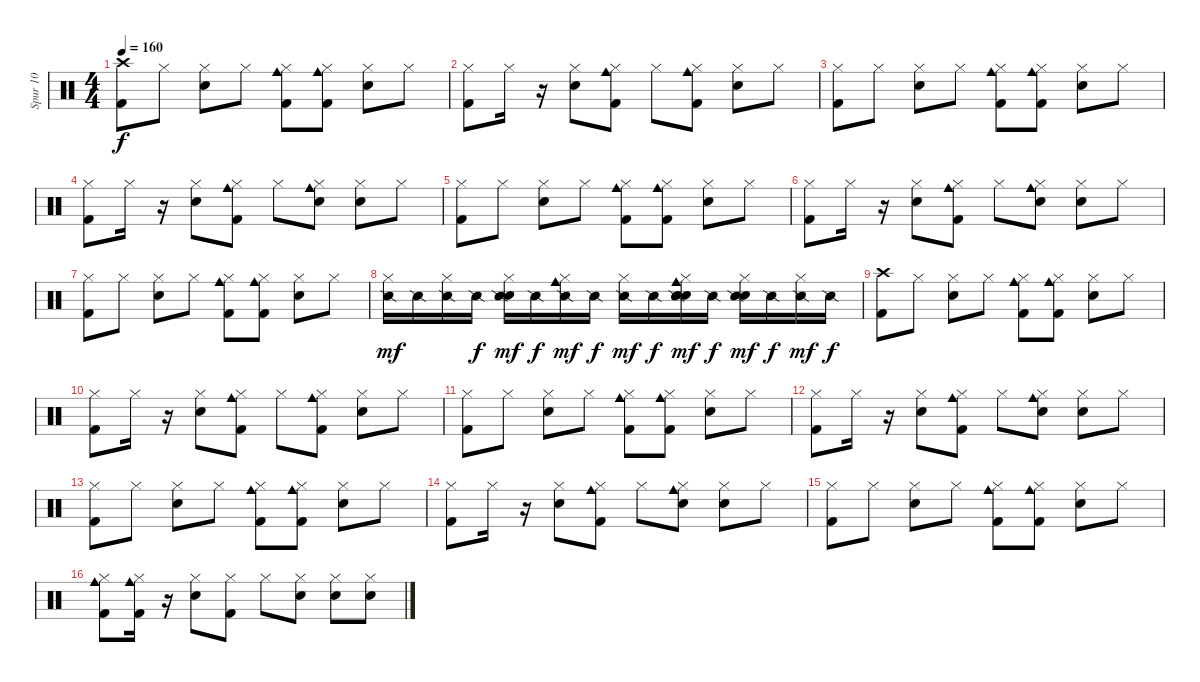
\track ("Spur 10" "Spur 10") {instrument percussion}
\staff {score}
\articulation defaults
\ts (4 4)
\tempo 160
\clef neutral
\ks c
("Crash high (hit)" "Kick (hit) 2").8{dy f} "Hi-Hat (closed)".8 ("Hi-Hat (closed)" "Snare (hit) 2").8 "Hi-Hat (closed)".8 ("Hi-Hat (closed)" "Cowbell medium (hit)" "Kick (hit) 2").8 ("Hi-Hat (closed)" "Cowbell medium (hit)" "Kick (hit) 2").8 ("Hi-Hat (closed)" "Snare (hit) 2").8 "Hi-Hat (closed)".8 |
("Hi-Hat (closed)" "Kick (hit) 2").8 "Hi-Hat (closed)".16 r.16 ("Hi-Hat (closed)" "Snare (hit) 2").8 ("Hi-Hat (closed)" "Kick (hit) 2" "Cowbell medium (hit)").8 "Hi-Hat (closed)".8 ("Hi-Hat (closed)" "Kick (hit) 2" "Cowbell medium (hit)").8 ("Hi-Hat (closed)" "Snare (hit) 2").8 "Hi-Hat (closed)".8 |
("Hi-Hat (closed)" "Kick (hit) 2").8 "Hi-Hat (closed)".8 ("Hi-Hat (closed)" "Snare (hit) 2").8 "Hi-Hat (closed)".8 ("Hi-Hat (closed)" "Cowbell medium (hit)" "Kick (hit) 2").8 ("Hi-Hat (closed)" "Cowbell medium (hit)" "Kick (hit) 2").8 ("Hi-Hat (closed)" "Snare (hit) 2").8 "Hi-Hat (closed)".8 |
("Hi-Hat (closed)" "Kick (hit) 2").8 "Hi-Hat (closed)".16 r.16 ("Hi-Hat (closed)" "Snare (hit) 2").8 ("Hi-Hat (closed)" "Kick (hit) 2" "Cowbell medium (hit)").8 "Hi-Hat (closed)".8 ("Hi-Hat (closed)" "Hand Clap (hit)" "Cowbell medium (hit)").8 ("Hi-Hat (closed)" "Snare (hit) 2").8 "Hi-Hat (closed)".8 |
("Hi-Hat (closed)" "Kick (hit) 2").8 "Hi-Hat (closed)".8 ("Hi-Hat (closed)" "Snare (hit) 2").8 "Hi-Hat (closed)".8 ("Hi-Hat (closed)" "Cowbell medium (hit)" "Kick (hit) 2").8 ("Hi-Hat (closed)" "Cowbell medium (hit)" "Kick (hit) 2").8 ("Hi-Hat (closed)" "Snare (hit) 2").8 "Hi-Hat (closed)".8 |
("Hi-Hat (closed)" "Kick (hit) 2").8 "Hi-Hat (closed)".16 r.16 ("Hi-Hat (closed)" "Snare (hit) 2").8 ("Hi-Hat (closed)" "Kick (hit) 2" "Cowbell medium (hit)").8 "Hi-Hat (closed)".8 ("Hi-Hat (closed)" "Hand Clap (hit)" "Cowbell medium (hit)").8 ("Hi-Hat (closed)" "Snare (hit) 2").8 "Hi-Hat (closed)".8 |
("Hi-Hat (closed)" "Kick (hit) 2").8 "Hi-Hat (closed)".8 ("Hi-Hat (closed)" "Snare (hit) 2").8 "Hi-Hat (closed)".8 ("Hi-Hat (closed)" "Cowbell medium (hit)" "Kick (hit) 2").8 ("Hi-Hat (closed)" "Cowbell medium (hit)" "Kick (hit) 2").8 ("Hi-Hat (closed)" "Snare (hit) 2").8 "Hi-Hat (closed)".8 |
("Hi-Hat (closed)" "Snare (side stick) 2").16{dy mf} "Snare (side stick) 2".16 ("Hi-Hat (closed)" "Snare (side stick) 2").16 "Snare (side stick) 2".16{dy f} ("Snare (hit) 2" "Hi-Hat (closed)" "Snare (side stick) 2").16{dy mf} "Snare (side stick) 2".16{dy f} ("Cowbell medium (hit)" "Hi-Hat (closed)" "Snare (side stick) 2").16{dy mf} "Snare (side stick) 2".16{dy f} ("Hi-Hat (closed)" "Snare (side stick) 2").16{dy mf} "Snare (side stick) 2".16{dy f} ("Cowbell medium (hit)" "Hi-Hat (closed)" "Hand Clap (hit)" "Snare (side stick) 2" "Hand Clap (hit)").16{dy mf} "Snare (side stick) 2".16{dy f} ("Hi-Hat (closed)" "Snare (hit) 2" "Snare (side stick) 2").16{dy mf} "Snare (side stick) 2".16{dy f} ("Hi-Hat (closed)" "Snare (side stick) 2").16{dy mf} "Snare (side stick) 2".16{dy f} |
("Crash high (hit)" "Kick (hit) 2").8 "Hi-Hat (closed)".8 ("Hi-Hat (closed)" "Snare (hit) 2").8 "Hi-Hat (closed)".8 ("Hi-Hat (closed)" "Cowbell medium (hit)" "Kick (hit) 2").8 ("Hi-Hat (closed)" "Cowbell medium (hit)" "Kick (hit) 2").8 ("Hi-Hat (closed)" "Snare (hit) 2").8 "Hi-Hat (closed)".8 |
("Hi-Hat (closed)" "Kick (hit) 2").8 "Hi-Hat (closed)".16 r.16 ("Hi-Hat (closed)" "Snare (hit) 2").8 ("Hi-Hat (closed)" "Kick (hit) 2" "Cowbell medium (hit)").8 "Hi-Hat (closed)".8 ("Hi-Hat (closed)" "Kick (hit) 2" "Cowbell medium (hit)").8 ("Hi-Hat (closed)" "Snare (hit) 2").8 "Hi-Hat (closed)".8 |
("Hi-Hat (closed)" "Kick (hit) 2").8 "Hi-Hat (closed)".8 ("Hi-Hat (closed)" "Snare (hit) 2").8 "Hi-Hat (closed)".8 ("Hi-Hat (closed)" "Cowbell medium (hit)" "Kick (hit) 2").8 ("Hi-Hat (closed)" "Cowbell medium (hit)" "Kick (hit) 2").8 ("Hi-Hat (closed)" "Snare (hit) 2").8 "Hi-Hat (closed)".8 |
("Hi-Hat (closed)" "Kick (hit) 2").8 "Hi-Hat (closed)".16 r.16 ("Hi-Hat (closed)" "Snare (hit) 2").8 ("Hi-Hat (closed)" "Kick (hit) 2" "Cowbell medium (hit)").8 "Hi-Hat (closed)".8 ("Hi-Hat (closed)" "Hand Clap (hit)" "Cowbell medium (hit)").8 ("Hi-Hat (closed)" "Snare (hit) 2").8 "Hi-Hat (closed)".8 |
("Hi-Hat (closed)" "Kick (hit) 2").8 "Hi-Hat (closed)".8 ("Hi-Hat (closed)" "Snare (hit) 2").8 "Hi-Hat (closed)".8 ("Hi-Hat (closed)" "Cowbell medium (hit)" "Kick (hit) 2").8 ("Hi-Hat (closed)" "Cowbell medium (hit)" "Kick (hit) 2").8 ("Hi-Hat (closed)" "Snare (hit) 2").8 "Hi-Hat (closed)".8 |
("Hi-Hat (closed)" "Kick (hit) 2").8 "Hi-Hat (closed)".16 r.16 ("Hi-Hat (closed)" "Snare (hit) 2").8 ("Hi-Hat (closed)" "Kick (hit) 2" "Cowbell medium (hit)").8 "Hi-Hat (closed)".8 ("Hi-Hat (closed)" "Hand Clap (hit)" "Cowbell medium (hit)").8 ("Hi-Hat (closed)" "Snare (hit) 2").8 "Hi-Hat (closed)".8 |
("Hi-Hat (closed)" "Kick (hit) 2").8 "Hi-Hat (closed)".8 ("Hi-Hat (closed)" "Snare (hit) 2").8 "Hi-Hat (closed)".8 ("Hi-Hat (closed)" "Cowbell medium (hit)" "Kick (hit) 2").8 ("Hi-Hat (closed)" "Cowbell medium (hit)" "Kick (hit) 2").8 ("Hi-Hat (closed)" "Snare (hit) 2").8 "Hi-Hat (closed)".8 |
("Cowbell medium (hit)" "Hi-Hat (closed)" "Kick (hit) 2").8 ("Cowbell medium (hit)" "Kick (hit) 2" "Hi-Hat (closed)").16 r.16 ("Hi-Hat (closed)" "Snare (hit) 2").8 ("Hi-Hat (closed)" "Kick (hit) 2").8 "Hi-Hat (closed)".8 ("Hi-Hat (closed)" "Snare (hit) 2").8 ("Hi-Hat (closed)" "Snare (hit) 2").8 ("Snare (hit) 2" "Hi-Hat (closed)").8
